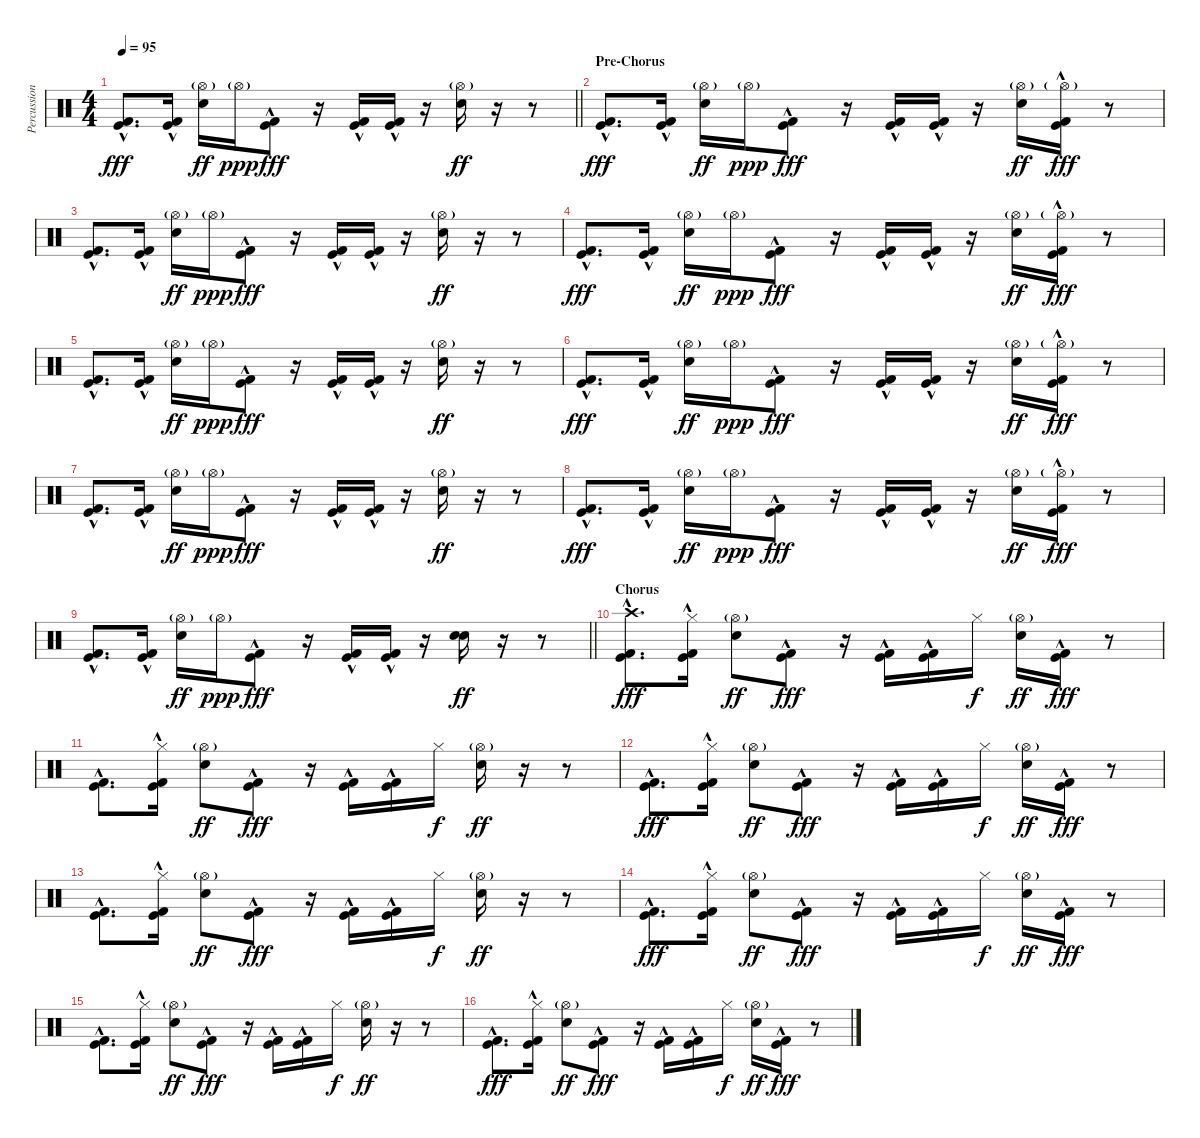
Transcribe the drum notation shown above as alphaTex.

\track ("Percussion" "Percussion") {instrument percussion}
\staff {score}
\articulation defaults
\ts (4 4)
\tempo 95
\clef neutral
\barLineRight lightlight
\ks c
("Kick (hit) 2"{hac} "Kick (hit)"{hac}).8{d dy fff} ("Kick (hit) 2"{hac} "Kick (hit)"{hac}).16 ("Hi-Hat (open)"{g} "Electric Snare (hit)").16{dy ff} "Hi-Hat (open)"{g}.16{dy ppp} ("Kick (hit) 2"{hac} "Kick (hit)"{hac}).8{dy fff} r.16 ("Kick (hit) 2"{hac} "Kick (hit)"{hac}).16 ("Kick (hit) 2"{hac} "Kick (hit)"{hac}).16 r.16 ("Hi-Hat (open)"{g} "Electric Snare (hit)").16{dy ff} r.16 r.8 |
\section ("" "Pre-Chorus")
("Kick (hit) 2"{hac} "Kick (hit)"{hac}).8{d dy fff} ("Kick (hit) 2"{hac} "Kick (hit)"{hac}).16 ("Hi-Hat (open)"{g} "Electric Snare (hit)").16{dy ff} "Hi-Hat (open)"{g}.16{dy ppp} ("Kick (hit) 2"{hac} "Kick (hit)"{hac}).8{dy fff} r.16 ("Kick (hit) 2"{hac} "Kick (hit)"{hac}).16 ("Kick (hit) 2"{hac} "Kick (hit)"{hac}).16 r.16 ("Hi-Hat (open)"{g} "Electric Snare (hit)").16{dy ff} ("Hi-Hat (open)"{g} "Kick (hit) 2"{hac} "Kick (hit)"{hac}).16{dy fff} r.8 |
("Kick (hit) 2"{hac} "Kick (hit)"{hac}).8{d} ("Kick (hit) 2"{hac} "Kick (hit)"{hac}).16 ("Hi-Hat (open)"{g} "Electric Snare (hit)").16{dy ff} "Hi-Hat (open)"{g}.16{dy ppp} ("Kick (hit) 2"{hac} "Kick (hit)"{hac}).8{dy fff} r.16 ("Kick (hit) 2"{hac} "Kick (hit)"{hac}).16 ("Kick (hit) 2"{hac} "Kick (hit)"{hac}).16 r.16 ("Hi-Hat (open)"{g} "Electric Snare (hit)").16{dy ff} r.16 r.8 |
("Kick (hit) 2"{hac} "Kick (hit)"{hac}).8{d dy fff} ("Kick (hit) 2"{hac} "Kick (hit)"{hac}).16 ("Hi-Hat (open)"{g} "Electric Snare (hit)").16{dy ff} "Hi-Hat (open)"{g}.16{dy ppp} ("Kick (hit) 2"{hac} "Kick (hit)"{hac}).8{dy fff} r.16 ("Kick (hit) 2"{hac} "Kick (hit)"{hac}).16 ("Kick (hit) 2"{hac} "Kick (hit)"{hac}).16 r.16 ("Hi-Hat (open)"{g} "Electric Snare (hit)").16{dy ff} ("Hi-Hat (open)"{g} "Kick (hit) 2"{hac} "Kick (hit)"{hac}).16{dy fff} r.8 |
("Kick (hit) 2"{hac} "Kick (hit)"{hac}).8{d} ("Kick (hit) 2"{hac} "Kick (hit)"{hac}).16 ("Hi-Hat (open)"{g} "Electric Snare (hit)").16{dy ff} "Hi-Hat (open)"{g}.16{dy ppp} ("Kick (hit) 2"{hac} "Kick (hit)"{hac}).8{dy fff} r.16 ("Kick (hit) 2"{hac} "Kick (hit)"{hac}).16 ("Kick (hit) 2"{hac} "Kick (hit)"{hac}).16 r.16 ("Hi-Hat (open)"{g} "Electric Snare (hit)").16{dy ff} r.16 r.8 |
("Kick (hit) 2"{hac} "Kick (hit)"{hac}).8{d dy fff} ("Kick (hit) 2"{hac} "Kick (hit)"{hac}).16 ("Hi-Hat (open)"{g} "Electric Snare (hit)").16{dy ff} "Hi-Hat (open)"{g}.16{dy ppp} ("Kick (hit) 2"{hac} "Kick (hit)"{hac}).8{dy fff} r.16 ("Kick (hit) 2"{hac} "Kick (hit)"{hac}).16 ("Kick (hit) 2"{hac} "Kick (hit)"{hac}).16 r.16 ("Hi-Hat (open)"{g} "Electric Snare (hit)").16{dy ff} ("Hi-Hat (open)"{g} "Kick (hit) 2"{hac} "Kick (hit)"{hac}).16{dy fff} r.8 |
("Kick (hit) 2"{hac} "Kick (hit)"{hac}).8{d} ("Kick (hit) 2"{hac} "Kick (hit)"{hac}).16 ("Hi-Hat (open)"{g} "Electric Snare (hit)").16{dy ff} "Hi-Hat (open)"{g}.16{dy ppp} ("Kick (hit) 2"{hac} "Kick (hit)"{hac}).8{dy fff} r.16 ("Kick (hit) 2"{hac} "Kick (hit)"{hac}).16 ("Kick (hit) 2"{hac} "Kick (hit)"{hac}).16 r.16 ("Hi-Hat (open)"{g} "Electric Snare (hit)").16{dy ff} r.16 r.8 |
("Kick (hit) 2"{hac} "Kick (hit)"{hac}).8{d dy fff} ("Kick (hit) 2"{hac} "Kick (hit)"{hac}).16 ("Hi-Hat (open)"{g} "Electric Snare (hit)").16{dy ff} "Hi-Hat (open)"{g}.16{dy ppp} ("Kick (hit) 2"{hac} "Kick (hit)"{hac}).8{dy fff} r.16 ("Kick (hit) 2"{hac} "Kick (hit)"{hac}).16 ("Kick (hit) 2"{hac} "Kick (hit)"{hac}).16 r.16 ("Hi-Hat (open)"{g} "Electric Snare (hit)").16{dy ff} ("Hi-Hat (open)"{g} "Kick (hit) 2"{hac} "Kick (hit)"{hac}).16{dy fff} r.8 |
\barLineRight lightlight
("Kick (hit) 2"{hac} "Kick (hit)"{hac}).8{d} ("Kick (hit) 2"{hac} "Kick (hit)"{hac}).16 ("Hi-Hat (open)"{g} "Electric Snare (hit)").16{dy ff} "Hi-Hat (open)"{g}.16{dy ppp} ("Kick (hit) 2"{hac} "Kick (hit)"{hac}).8{dy fff} r.16 ("Kick (hit) 2"{hac} "Kick (hit)"{hac}).16 ("Kick (hit) 2"{hac} "Kick (hit)"{hac}).16 r.16 ("Snare (hit) 2" "Electric Snare (hit)").16{dy ff} r.16 r.8 |
\section ("" "Chorus")
("Crash high (hit)" "Kick (hit) 2"{hac} "Kick (hit)"{hac}).8{d dy fff} ("Hi-Hat (closed)" "Kick (hit) 2"{hac} "Kick (hit)"{hac}).16 ("Hi-Hat (open)"{g} "Electric Snare (hit)").8{dy ff} ("Kick (hit) 2"{hac} "Kick (hit)"{hac}).8{dy fff} r.16 ("Kick (hit) 2"{hac} "Kick (hit)"{hac}).16 ("Kick (hit) 2"{hac} "Kick (hit)"{hac}).16 "Hi-Hat (closed)".16{dy f} ("Hi-Hat (open)"{g} "Electric Snare (hit)").16{dy ff} ("Kick (hit) 2"{hac} "Kick (hit)"{hac}).16{dy fff} r.8 |
("Kick (hit) 2"{hac} "Kick (hit)"{hac}).8{d} ("Hi-Hat (closed)" "Kick (hit) 2"{hac} "Kick (hit)"{hac}).16 ("Hi-Hat (open)"{g} "Electric Snare (hit)").8{dy ff} ("Kick (hit) 2"{hac} "Kick (hit)"{hac}).8{dy fff} r.16 ("Kick (hit) 2"{hac} "Kick (hit)"{hac}).16 ("Kick (hit) 2"{hac} "Kick (hit)"{hac}).16 "Hi-Hat (closed)".16{dy f} ("Hi-Hat (open)"{g} "Electric Snare (hit)").16{dy ff} r.16 r.8 |
("Kick (hit) 2"{hac} "Kick (hit)"{hac}).8{d dy fff} ("Hi-Hat (closed)" "Kick (hit) 2"{hac} "Kick (hit)"{hac}).16 ("Hi-Hat (open)"{g} "Electric Snare (hit)").8{dy ff} ("Kick (hit) 2"{hac} "Kick (hit)"{hac}).8{dy fff} r.16 ("Kick (hit) 2"{hac} "Kick (hit)"{hac}).16 ("Kick (hit) 2"{hac} "Kick (hit)"{hac}).16 "Hi-Hat (closed)".16{dy f} ("Hi-Hat (open)"{g} "Electric Snare (hit)").16{dy ff} ("Kick (hit) 2"{hac} "Kick (hit)"{hac}).16{dy fff} r.8 |
("Kick (hit) 2"{hac} "Kick (hit)"{hac}).8{d} ("Hi-Hat (closed)" "Kick (hit) 2"{hac} "Kick (hit)"{hac}).16 ("Hi-Hat (open)"{g} "Electric Snare (hit)").8{dy ff} ("Kick (hit) 2"{hac} "Kick (hit)"{hac}).8{dy fff} r.16 ("Kick (hit) 2"{hac} "Kick (hit)"{hac}).16 ("Kick (hit) 2"{hac} "Kick (hit)"{hac}).16 "Hi-Hat (closed)".16{dy f} ("Hi-Hat (open)"{g} "Electric Snare (hit)").16{dy ff} r.16 r.8 |
("Kick (hit) 2"{hac} "Kick (hit)"{hac}).8{d dy fff} ("Hi-Hat (closed)" "Kick (hit) 2"{hac} "Kick (hit)"{hac}).16 ("Hi-Hat (open)"{g} "Electric Snare (hit)").8{dy ff} ("Kick (hit) 2"{hac} "Kick (hit)"{hac}).8{dy fff} r.16 ("Kick (hit) 2"{hac} "Kick (hit)"{hac}).16 ("Kick (hit) 2"{hac} "Kick (hit)"{hac}).16 "Hi-Hat (closed)".16{dy f} ("Hi-Hat (open)"{g} "Electric Snare (hit)").16{dy ff} ("Kick (hit) 2"{hac} "Kick (hit)"{hac}).16{dy fff} r.8 |
("Kick (hit) 2"{hac} "Kick (hit)"{hac}).8{d} ("Hi-Hat (closed)" "Kick (hit) 2"{hac} "Kick (hit)"{hac}).16 ("Hi-Hat (open)"{g} "Electric Snare (hit)").8{dy ff} ("Kick (hit) 2"{hac} "Kick (hit)"{hac}).8{dy fff} r.16 ("Kick (hit) 2"{hac} "Kick (hit)"{hac}).16 ("Kick (hit) 2"{hac} "Kick (hit)"{hac}).16 "Hi-Hat (closed)".16{dy f} ("Hi-Hat (open)"{g} "Electric Snare (hit)").16{dy ff} r.16 r.8 |
("Kick (hit) 2"{hac} "Kick (hit)"{hac}).8{d dy fff} ("Hi-Hat (closed)" "Kick (hit) 2"{hac} "Kick (hit)"{hac}).16 ("Hi-Hat (open)"{g} "Electric Snare (hit)").8{dy ff} ("Kick (hit) 2"{hac} "Kick (hit)"{hac}).8{dy fff} r.16 ("Kick (hit) 2"{hac} "Kick (hit)"{hac}).16 ("Kick (hit) 2"{hac} "Kick (hit)"{hac}).16 "Hi-Hat (closed)".16{dy f} ("Hi-Hat (open)"{g} "Electric Snare (hit)").16{dy ff} ("Kick (hit) 2"{hac} "Kick (hit)"{hac}).16{dy fff} r.8
